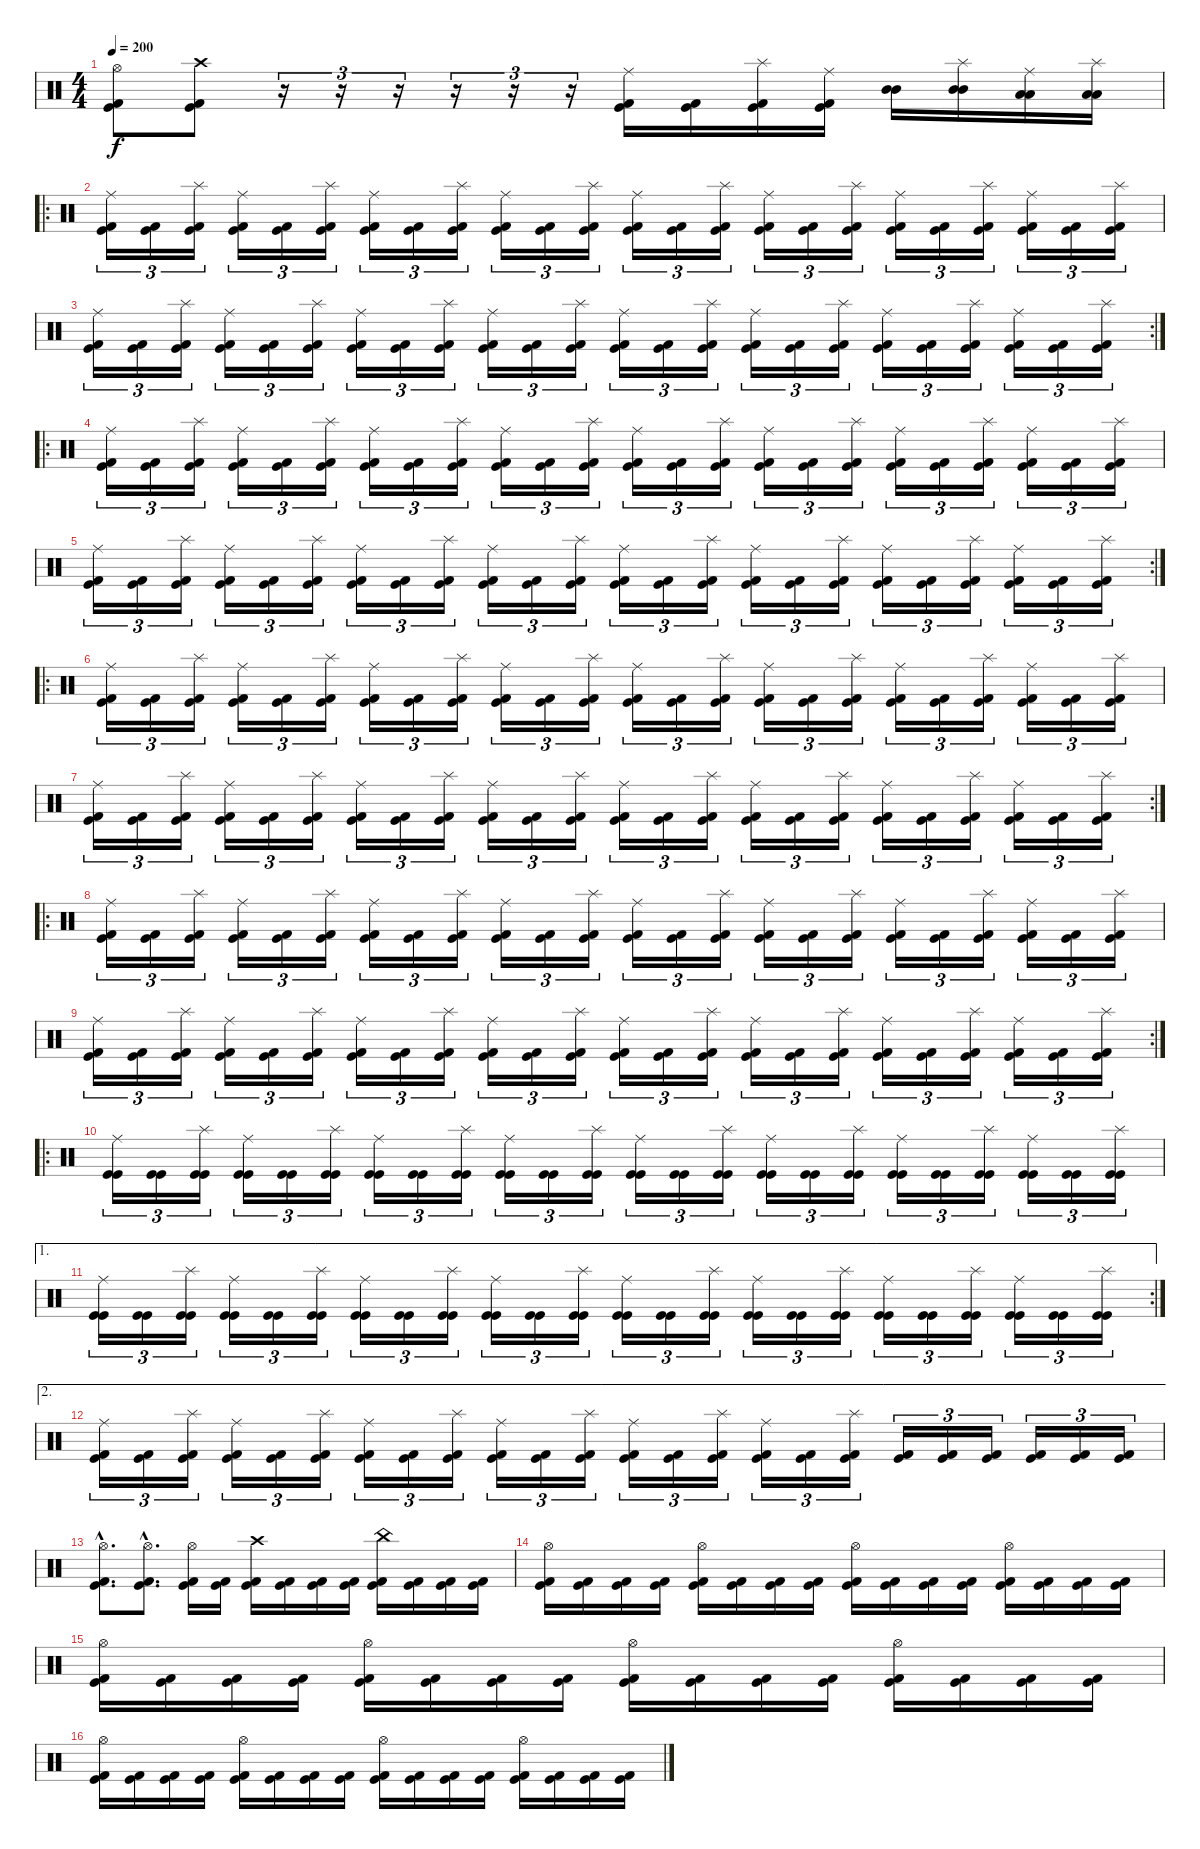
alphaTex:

\track "" {instrument percussion}
\staff {score}
\articulation defaults
\ts (4 4)
\tempo 200
\clef neutral
\ks c
("Hi-Hat (open)" "Kick (hit)" "Kick (hit) 2").8{dy f} ("Crash high (hit)" "Kick (hit)" "Kick (hit) 2").8 r.16{tu (3 2)} r.16{tu (3 2)} r.16{tu (3 2)} r.16{tu (3 2)} r.16{tu (3 2)} r.16{tu (3 2)} ("Ride (middle)" "Kick (hit)" "Kick (hit) 2").16 ("Kick (hit)" "Kick (hit) 2").16 ("Splash (hit)" "Kick (hit)" "Kick (hit) 2").16 ("Ride (middle)" "Kick (hit)" "Kick (hit) 2").16 ("Mid Tom (hit)" "Mid Tom (hit)").16 ("Splash (hit)" "Mid Tom (hit)" "Mid Tom (hit)").16 ("Ride (middle)" "Low Tom (hit)" "Low Tom (hit)").16 ("Splash (hit)" "Low Tom (hit)" "Low Tom (hit)").16 |
\ro
("Ride (middle)" "Kick (hit)" "Kick (hit) 2").16{tu (3 2)} ("Kick (hit)" "Kick (hit) 2").16{tu (3 2)} ("Splash (hit)" "Kick (hit)" "Kick (hit) 2").16{tu (3 2)} ("Ride (middle)" "Kick (hit)" "Kick (hit) 2").16{tu (3 2)} ("Kick (hit)" "Kick (hit) 2").16{tu (3 2)} ("Splash (hit)" "Kick (hit)" "Kick (hit) 2").16{tu (3 2)} ("Ride (middle)" "Kick (hit)" "Kick (hit) 2").16{tu (3 2)} ("Kick (hit)" "Kick (hit) 2").16{tu (3 2)} ("Splash (hit)" "Kick (hit)" "Kick (hit) 2").16{tu (3 2)} ("Ride (middle)" "Kick (hit)" "Kick (hit) 2").16{tu (3 2)} ("Kick (hit)" "Kick (hit) 2").16{tu (3 2)} ("Splash (hit)" "Kick (hit)" "Kick (hit) 2").16{tu (3 2)} ("Ride (middle)" "Kick (hit)" "Kick (hit) 2").16{tu (3 2)} ("Kick (hit)" "Kick (hit) 2").16{tu (3 2)} ("Splash (hit)" "Kick (hit)" "Kick (hit) 2").16{tu (3 2)} ("Ride (middle)" "Kick (hit)" "Kick (hit) 2").16{tu (3 2)} ("Kick (hit)" "Kick (hit) 2").16{tu (3 2)} ("Splash (hit)" "Kick (hit)" "Kick (hit) 2").16{tu (3 2)} ("Ride (middle)" "Kick (hit)" "Kick (hit) 2").16{tu (3 2)} ("Kick (hit)" "Kick (hit) 2").16{tu (3 2)} ("Splash (hit)" "Kick (hit)" "Kick (hit) 2").16{tu (3 2)} ("Ride (middle)" "Kick (hit)" "Kick (hit) 2").16{tu (3 2)} ("Kick (hit)" "Kick (hit) 2").16{tu (3 2)} ("Splash (hit)" "Kick (hit)" "Kick (hit) 2").16{tu (3 2)} |
\rc 2
("Ride (middle)" "Kick (hit)" "Kick (hit) 2").16{tu (3 2)} ("Kick (hit)" "Kick (hit) 2").16{tu (3 2)} ("Splash (hit)" "Kick (hit)" "Kick (hit) 2").16{tu (3 2)} ("Ride (middle)" "Kick (hit)" "Kick (hit) 2").16{tu (3 2)} ("Kick (hit)" "Kick (hit) 2").16{tu (3 2)} ("Splash (hit)" "Kick (hit)" "Kick (hit) 2").16{tu (3 2)} ("Ride (middle)" "Kick (hit)" "Kick (hit) 2").16{tu (3 2)} ("Kick (hit)" "Kick (hit) 2").16{tu (3 2)} ("Splash (hit)" "Kick (hit)" "Kick (hit) 2").16{tu (3 2)} ("Ride (middle)" "Kick (hit)" "Kick (hit) 2").16{tu (3 2)} ("Kick (hit)" "Kick (hit) 2").16{tu (3 2)} ("Splash (hit)" "Kick (hit)" "Kick (hit) 2").16{tu (3 2)} ("Ride (middle)" "Kick (hit)" "Kick (hit) 2").16{tu (3 2)} ("Kick (hit)" "Kick (hit) 2").16{tu (3 2)} ("Splash (hit)" "Kick (hit)" "Kick (hit) 2").16{tu (3 2)} ("Ride (middle)" "Kick (hit)" "Kick (hit) 2").16{tu (3 2)} ("Kick (hit)" "Kick (hit) 2").16{tu (3 2)} ("Splash (hit)" "Kick (hit)" "Kick (hit) 2").16{tu (3 2)} ("Ride (middle)" "Kick (hit)" "Kick (hit) 2").16{tu (3 2)} ("Kick (hit)" "Kick (hit) 2").16{tu (3 2)} ("Splash (hit)" "Kick (hit)" "Kick (hit) 2").16{tu (3 2)} ("Ride (middle)" "Kick (hit)" "Kick (hit) 2").16{tu (3 2)} ("Kick (hit)" "Kick (hit) 2").16{tu (3 2)} ("Splash (hit)" "Kick (hit)" "Kick (hit) 2").16{tu (3 2)} |
\ro
("Ride (middle)" "Kick (hit)" "Kick (hit) 2").16{tu (3 2)} ("Kick (hit)" "Kick (hit) 2").16{tu (3 2)} ("Splash (hit)" "Kick (hit)" "Kick (hit) 2").16{tu (3 2)} ("Ride (middle)" "Kick (hit)" "Kick (hit) 2").16{tu (3 2)} ("Kick (hit)" "Kick (hit) 2").16{tu (3 2)} ("Splash (hit)" "Kick (hit)" "Kick (hit) 2").16{tu (3 2)} ("Ride (middle)" "Kick (hit)" "Kick (hit) 2").16{tu (3 2)} ("Kick (hit)" "Kick (hit) 2").16{tu (3 2)} ("Splash (hit)" "Kick (hit)" "Kick (hit) 2").16{tu (3 2)} ("Ride (middle)" "Kick (hit)" "Kick (hit) 2").16{tu (3 2)} ("Kick (hit)" "Kick (hit) 2").16{tu (3 2)} ("Splash (hit)" "Kick (hit)" "Kick (hit) 2").16{tu (3 2)} ("Ride (middle)" "Kick (hit)" "Kick (hit) 2").16{tu (3 2)} ("Kick (hit)" "Kick (hit) 2").16{tu (3 2)} ("Splash (hit)" "Kick (hit)" "Kick (hit) 2").16{tu (3 2)} ("Ride (middle)" "Kick (hit)" "Kick (hit) 2").16{tu (3 2)} ("Kick (hit)" "Kick (hit) 2").16{tu (3 2)} ("Splash (hit)" "Kick (hit)" "Kick (hit) 2").16{tu (3 2)} ("Ride (middle)" "Kick (hit)" "Kick (hit) 2").16{tu (3 2)} ("Kick (hit)" "Kick (hit) 2").16{tu (3 2)} ("Splash (hit)" "Kick (hit)" "Kick (hit) 2").16{tu (3 2)} ("Ride (middle)" "Kick (hit)" "Kick (hit) 2").16{tu (3 2)} ("Kick (hit)" "Kick (hit) 2").16{tu (3 2)} ("Splash (hit)" "Kick (hit)" "Kick (hit) 2").16{tu (3 2)} |
\rc 2
("Ride (middle)" "Kick (hit)" "Kick (hit) 2").16{tu (3 2)} ("Kick (hit)" "Kick (hit) 2").16{tu (3 2)} ("Splash (hit)" "Kick (hit)" "Kick (hit) 2").16{tu (3 2)} ("Ride (middle)" "Kick (hit)" "Kick (hit) 2").16{tu (3 2)} ("Kick (hit)" "Kick (hit) 2").16{tu (3 2)} ("Splash (hit)" "Kick (hit)" "Kick (hit) 2").16{tu (3 2)} ("Ride (middle)" "Kick (hit)" "Kick (hit) 2").16{tu (3 2)} ("Kick (hit)" "Kick (hit) 2").16{tu (3 2)} ("Splash (hit)" "Kick (hit)" "Kick (hit) 2").16{tu (3 2)} ("Ride (middle)" "Kick (hit)" "Kick (hit) 2").16{tu (3 2)} ("Kick (hit)" "Kick (hit) 2").16{tu (3 2)} ("Splash (hit)" "Kick (hit)" "Kick (hit) 2").16{tu (3 2)} ("Ride (middle)" "Kick (hit)" "Kick (hit) 2").16{tu (3 2)} ("Kick (hit)" "Kick (hit) 2").16{tu (3 2)} ("Splash (hit)" "Kick (hit)" "Kick (hit) 2").16{tu (3 2)} ("Ride (middle)" "Kick (hit)" "Kick (hit) 2").16{tu (3 2)} ("Kick (hit)" "Kick (hit) 2").16{tu (3 2)} ("Splash (hit)" "Kick (hit)" "Kick (hit) 2").16{tu (3 2)} ("Ride (middle)" "Kick (hit)" "Kick (hit) 2").16{tu (3 2)} ("Kick (hit)" "Kick (hit) 2").16{tu (3 2)} ("Splash (hit)" "Kick (hit)" "Kick (hit) 2").16{tu (3 2)} ("Ride (middle)" "Kick (hit)" "Kick (hit) 2").16{tu (3 2)} ("Kick (hit)" "Kick (hit) 2").16{tu (3 2)} ("Splash (hit)" "Kick (hit)" "Kick (hit) 2").16{tu (3 2)} |
\ro
("Ride (middle)" "Kick (hit)" "Kick (hit) 2").16{tu (3 2)} ("Kick (hit)" "Kick (hit) 2").16{tu (3 2)} ("Splash (hit)" "Kick (hit)" "Kick (hit) 2").16{tu (3 2)} ("Ride (middle)" "Kick (hit)" "Kick (hit) 2").16{tu (3 2)} ("Kick (hit)" "Kick (hit) 2").16{tu (3 2)} ("Splash (hit)" "Kick (hit)" "Kick (hit) 2").16{tu (3 2)} ("Ride (middle)" "Kick (hit)" "Kick (hit) 2").16{tu (3 2)} ("Kick (hit)" "Kick (hit) 2").16{tu (3 2)} ("Splash (hit)" "Kick (hit)" "Kick (hit) 2").16{tu (3 2)} ("Ride (middle)" "Kick (hit)" "Kick (hit) 2").16{tu (3 2)} ("Kick (hit)" "Kick (hit) 2").16{tu (3 2)} ("Splash (hit)" "Kick (hit)" "Kick (hit) 2").16{tu (3 2)} ("Ride (middle)" "Kick (hit)" "Kick (hit) 2").16{tu (3 2)} ("Kick (hit)" "Kick (hit) 2").16{tu (3 2)} ("Splash (hit)" "Kick (hit)" "Kick (hit) 2").16{tu (3 2)} ("Ride (middle)" "Kick (hit)" "Kick (hit) 2").16{tu (3 2)} ("Kick (hit)" "Kick (hit) 2").16{tu (3 2)} ("Splash (hit)" "Kick (hit)" "Kick (hit) 2").16{tu (3 2)} ("Ride (middle)" "Kick (hit)" "Kick (hit) 2").16{tu (3 2)} ("Kick (hit)" "Kick (hit) 2").16{tu (3 2)} ("Splash (hit)" "Kick (hit)" "Kick (hit) 2").16{tu (3 2)} ("Ride (middle)" "Kick (hit)" "Kick (hit) 2").16{tu (3 2)} ("Kick (hit)" "Kick (hit) 2").16{tu (3 2)} ("Splash (hit)" "Kick (hit)" "Kick (hit) 2").16{tu (3 2)} |
\rc 2
("Ride (middle)" "Kick (hit)" "Kick (hit) 2").16{tu (3 2)} ("Kick (hit)" "Kick (hit) 2").16{tu (3 2)} ("Splash (hit)" "Kick (hit)" "Kick (hit) 2").16{tu (3 2)} ("Ride (middle)" "Kick (hit)" "Kick (hit) 2").16{tu (3 2)} ("Kick (hit)" "Kick (hit) 2").16{tu (3 2)} ("Splash (hit)" "Kick (hit)" "Kick (hit) 2").16{tu (3 2)} ("Ride (middle)" "Kick (hit)" "Kick (hit) 2").16{tu (3 2)} ("Kick (hit)" "Kick (hit) 2").16{tu (3 2)} ("Splash (hit)" "Kick (hit)" "Kick (hit) 2").16{tu (3 2)} ("Ride (middle)" "Kick (hit)" "Kick (hit) 2").16{tu (3 2)} ("Kick (hit)" "Kick (hit) 2").16{tu (3 2)} ("Splash (hit)" "Kick (hit)" "Kick (hit) 2").16{tu (3 2)} ("Ride (middle)" "Kick (hit)" "Kick (hit) 2").16{tu (3 2)} ("Kick (hit)" "Kick (hit) 2").16{tu (3 2)} ("Splash (hit)" "Kick (hit)" "Kick (hit) 2").16{tu (3 2)} ("Ride (middle)" "Kick (hit)" "Kick (hit) 2").16{tu (3 2)} ("Kick (hit)" "Kick (hit) 2").16{tu (3 2)} ("Splash (hit)" "Kick (hit)" "Kick (hit) 2").16{tu (3 2)} ("Ride (middle)" "Kick (hit)" "Kick (hit) 2").16{tu (3 2)} ("Kick (hit)" "Kick (hit) 2").16{tu (3 2)} ("Splash (hit)" "Kick (hit)" "Kick (hit) 2").16{tu (3 2)} ("Ride (middle)" "Kick (hit)" "Kick (hit) 2").16{tu (3 2)} ("Kick (hit)" "Kick (hit) 2").16{tu (3 2)} ("Splash (hit)" "Kick (hit)" "Kick (hit) 2").16{tu (3 2)} |
\ro
("Ride (middle)" "Kick (hit)" "Kick (hit) 2").16{tu (3 2)} ("Kick (hit)" "Kick (hit) 2").16{tu (3 2)} ("Splash (hit)" "Kick (hit)" "Kick (hit) 2").16{tu (3 2)} ("Ride (middle)" "Kick (hit)" "Kick (hit) 2").16{tu (3 2)} ("Kick (hit)" "Kick (hit) 2").16{tu (3 2)} ("Splash (hit)" "Kick (hit)" "Kick (hit) 2").16{tu (3 2)} ("Ride (middle)" "Kick (hit)" "Kick (hit) 2").16{tu (3 2)} ("Kick (hit)" "Kick (hit) 2").16{tu (3 2)} ("Splash (hit)" "Kick (hit)" "Kick (hit) 2").16{tu (3 2)} ("Ride (middle)" "Kick (hit)" "Kick (hit) 2").16{tu (3 2)} ("Kick (hit)" "Kick (hit) 2").16{tu (3 2)} ("Splash (hit)" "Kick (hit)" "Kick (hit) 2").16{tu (3 2)} ("Ride (middle)" "Kick (hit)" "Kick (hit) 2").16{tu (3 2)} ("Kick (hit)" "Kick (hit) 2").16{tu (3 2)} ("Splash (hit)" "Kick (hit)" "Kick (hit) 2").16{tu (3 2)} ("Ride (middle)" "Kick (hit)" "Kick (hit) 2").16{tu (3 2)} ("Kick (hit)" "Kick (hit) 2").16{tu (3 2)} ("Splash (hit)" "Kick (hit)" "Kick (hit) 2").16{tu (3 2)} ("Ride (middle)" "Kick (hit)" "Kick (hit) 2").16{tu (3 2)} ("Kick (hit)" "Kick (hit) 2").16{tu (3 2)} ("Splash (hit)" "Kick (hit)" "Kick (hit) 2").16{tu (3 2)} ("Ride (middle)" "Kick (hit)" "Kick (hit) 2").16{tu (3 2)} ("Kick (hit)" "Kick (hit) 2").16{tu (3 2)} ("Splash (hit)" "Kick (hit)" "Kick (hit) 2").16{tu (3 2)} |
\rc 2
("Ride (middle)" "Kick (hit)" "Kick (hit) 2").16{tu (3 2)} ("Kick (hit)" "Kick (hit) 2").16{tu (3 2)} ("Splash (hit)" "Kick (hit)" "Kick (hit) 2").16{tu (3 2)} ("Ride (middle)" "Kick (hit)" "Kick (hit) 2").16{tu (3 2)} ("Kick (hit)" "Kick (hit) 2").16{tu (3 2)} ("Splash (hit)" "Kick (hit)" "Kick (hit) 2").16{tu (3 2)} ("Ride (middle)" "Kick (hit)" "Kick (hit) 2").16{tu (3 2)} ("Kick (hit)" "Kick (hit) 2").16{tu (3 2)} ("Splash (hit)" "Kick (hit)" "Kick (hit) 2").16{tu (3 2)} ("Ride (middle)" "Kick (hit)" "Kick (hit) 2").16{tu (3 2)} ("Kick (hit)" "Kick (hit) 2").16{tu (3 2)} ("Splash (hit)" "Kick (hit)" "Kick (hit) 2").16{tu (3 2)} ("Ride (middle)" "Kick (hit)" "Kick (hit) 2").16{tu (3 2)} ("Kick (hit)" "Kick (hit) 2").16{tu (3 2)} ("Splash (hit)" "Kick (hit)" "Kick (hit) 2").16{tu (3 2)} ("Ride (middle)" "Kick (hit)" "Kick (hit) 2").16{tu (3 2)} ("Kick (hit)" "Kick (hit) 2").16{tu (3 2)} ("Splash (hit)" "Kick (hit)" "Kick (hit) 2").16{tu (3 2)} ("Ride (middle)" "Kick (hit)" "Kick (hit) 2").16{tu (3 2)} ("Kick (hit)" "Kick (hit) 2").16{tu (3 2)} ("Splash (hit)" "Kick (hit)" "Kick (hit) 2").16{tu (3 2)} ("Ride (middle)" "Kick (hit)" "Kick (hit) 2").16{tu (3 2)} ("Kick (hit)" "Kick (hit) 2").16{tu (3 2)} ("Splash (hit)" "Kick (hit)" "Kick (hit) 2").16{tu (3 2)} |
\ro
("Ride (middle)" "Kick (hit)" "Kick (hit)").16{tu (3 2)} ("Kick (hit)" "Kick (hit)").16{tu (3 2)} ("Splash (hit)" "Kick (hit)" "Kick (hit)").16{tu (3 2)} ("Ride (middle)" "Kick (hit)" "Kick (hit)").16{tu (3 2)} ("Kick (hit)" "Kick (hit)").16{tu (3 2)} ("Splash (hit)" "Kick (hit)" "Kick (hit)").16{tu (3 2)} ("Ride (middle)" "Kick (hit)" "Kick (hit)").16{tu (3 2)} ("Kick (hit)" "Kick (hit)").16{tu (3 2)} ("Splash (hit)" "Kick (hit)" "Kick (hit)").16{tu (3 2)} ("Ride (middle)" "Kick (hit)" "Kick (hit)").16{tu (3 2)} ("Kick (hit)" "Kick (hit)").16{tu (3 2)} ("Splash (hit)" "Kick (hit)" "Kick (hit)").16{tu (3 2)} ("Ride (middle)" "Kick (hit)" "Kick (hit)").16{tu (3 2)} ("Kick (hit)" "Kick (hit)").16{tu (3 2)} ("Splash (hit)" "Kick (hit)" "Kick (hit)").16{tu (3 2)} ("Ride (middle)" "Kick (hit)" "Kick (hit)").16{tu (3 2)} ("Kick (hit)" "Kick (hit)").16{tu (3 2)} ("Splash (hit)" "Kick (hit)" "Kick (hit)").16{tu (3 2)} ("Ride (middle)" "Kick (hit)" "Kick (hit)").16{tu (3 2)} ("Kick (hit)" "Kick (hit)").16{tu (3 2)} ("Splash (hit)" "Kick (hit)" "Kick (hit)").16{tu (3 2)} ("Ride (middle)" "Kick (hit)" "Kick (hit)").16{tu (3 2)} ("Kick (hit)" "Kick (hit)").16{tu (3 2)} ("Splash (hit)" "Kick (hit)" "Kick (hit)").16{tu (3 2)} |
\ae 1
\rc 2
("Ride (middle)" "Kick (hit)" "Kick (hit)").16{tu (3 2)} ("Kick (hit)" "Kick (hit)").16{tu (3 2)} ("Splash (hit)" "Kick (hit)" "Kick (hit)").16{tu (3 2)} ("Ride (middle)" "Kick (hit)" "Kick (hit)").16{tu (3 2)} ("Kick (hit)" "Kick (hit)").16{tu (3 2)} ("Splash (hit)" "Kick (hit)" "Kick (hit)").16{tu (3 2)} ("Ride (middle)" "Kick (hit)" "Kick (hit)").16{tu (3 2)} ("Kick (hit)" "Kick (hit)").16{tu (3 2)} ("Splash (hit)" "Kick (hit)" "Kick (hit)").16{tu (3 2)} ("Ride (middle)" "Kick (hit)" "Kick (hit)").16{tu (3 2)} ("Kick (hit)" "Kick (hit)").16{tu (3 2)} ("Splash (hit)" "Kick (hit)" "Kick (hit)").16{tu (3 2)} ("Ride (middle)" "Kick (hit)" "Kick (hit)").16{tu (3 2)} ("Kick (hit)" "Kick (hit)").16{tu (3 2)} ("Splash (hit)" "Kick (hit)" "Kick (hit)").16{tu (3 2)} ("Ride (middle)" "Kick (hit)" "Kick (hit)").16{tu (3 2)} ("Kick (hit)" "Kick (hit)").16{tu (3 2)} ("Splash (hit)" "Kick (hit)" "Kick (hit)").16{tu (3 2)} ("Ride (middle)" "Kick (hit)" "Kick (hit)").16{tu (3 2)} ("Kick (hit)" "Kick (hit)").16{tu (3 2)} ("Splash (hit)" "Kick (hit)" "Kick (hit)").16{tu (3 2)} ("Ride (middle)" "Kick (hit)" "Kick (hit)").16{tu (3 2)} ("Kick (hit)" "Kick (hit)").16{tu (3 2)} ("Splash (hit)" "Kick (hit)" "Kick (hit)").16{tu (3 2)} |
\ae 2
("Ride (middle)" "Kick (hit)" "Kick (hit) 2").16{tu (3 2)} ("Kick (hit)" "Kick (hit) 2").16{tu (3 2)} ("Splash (hit)" "Kick (hit)" "Kick (hit) 2").16{tu (3 2)} ("Ride (middle)" "Kick (hit)" "Kick (hit) 2").16{tu (3 2)} ("Kick (hit)" "Kick (hit) 2").16{tu (3 2)} ("Splash (hit)" "Kick (hit)" "Kick (hit) 2").16{tu (3 2)} ("Ride (middle)" "Kick (hit)" "Kick (hit) 2").16{tu (3 2)} ("Kick (hit)" "Kick (hit) 2").16{tu (3 2)} ("Splash (hit)" "Kick (hit)" "Kick (hit) 2").16{tu (3 2)} ("Ride (middle)" "Kick (hit)" "Kick (hit) 2").16{tu (3 2)} ("Kick (hit)" "Kick (hit) 2").16{tu (3 2)} ("Splash (hit)" "Kick (hit)" "Kick (hit) 2").16{tu (3 2)} ("Ride (middle)" "Kick (hit)" "Kick (hit) 2").16{tu (3 2)} ("Kick (hit)" "Kick (hit) 2").16{tu (3 2)} ("Splash (hit)" "Kick (hit)" "Kick (hit) 2").16{tu (3 2)} ("Ride (middle)" "Kick (hit)" "Kick (hit) 2").16{tu (3 2)} ("Kick (hit)" "Kick (hit) 2").16{tu (3 2)} ("Splash (hit)" "Kick (hit)" "Kick (hit) 2").16{tu (3 2)} ("Kick (hit)" "Kick (hit) 2").16{tu (3 2)} ("Kick (hit)" "Kick (hit) 2").16{tu (3 2)} ("Kick (hit)" "Kick (hit) 2").16{tu (3 2)} ("Kick (hit)" "Kick (hit) 2").16{tu (3 2)} ("Kick (hit)" "Kick (hit) 2").16{tu (3 2)} ("Kick (hit)" "Kick (hit) 2").16{tu (3 2)} |
("Hi-Hat (open)"{hac} "Kick (hit)"{hac} "Kick (hit) 2"{hac}).8{d} ("Hi-Hat (open)"{hac} "Kick (hit)"{hac} "Kick (hit) 2"{hac}).8{d} ("Hi-Hat (open)" "Kick (hit)" "Kick (hit) 2").16 ("Kick (hit)" "Kick (hit) 2").16 ("Crash high (hit)" "Kick (hit)" "Kick (hit) 2").16 ("Kick (hit)" "Kick (hit) 2").16 ("Kick (hit)" "Kick (hit) 2").16 ("Kick (hit)" "Kick (hit) 2").16 ("China (hit)" "Kick (hit)" "Kick (hit) 2").16 ("Kick (hit)" "Kick (hit) 2").16 ("Kick (hit)" "Kick (hit) 2").16 ("Kick (hit)" "Kick (hit) 2").16 |
("Hi-Hat (open)" "Kick (hit)" "Kick (hit) 2").16 ("Kick (hit)" "Kick (hit) 2").16 ("Kick (hit)" "Kick (hit) 2").16 ("Kick (hit)" "Kick (hit) 2").16 ("Hi-Hat (open)" "Kick (hit)" "Kick (hit) 2").16 ("Kick (hit)" "Kick (hit) 2").16 ("Kick (hit)" "Kick (hit) 2").16 ("Kick (hit)" "Kick (hit) 2").16 ("Hi-Hat (open)" "Kick (hit)" "Kick (hit) 2").16 ("Kick (hit)" "Kick (hit) 2").16 ("Kick (hit)" "Kick (hit) 2").16 ("Kick (hit)" "Kick (hit) 2").16 ("Hi-Hat (open)" "Kick (hit)" "Kick (hit) 2").16 ("Kick (hit)" "Kick (hit) 2").16 ("Kick (hit)" "Kick (hit) 2").16 ("Kick (hit)" "Kick (hit) 2").16 |
("Hi-Hat (open)" "Kick (hit)" "Kick (hit) 2").16 ("Kick (hit)" "Kick (hit) 2").16 ("Kick (hit)" "Kick (hit) 2").16 ("Kick (hit)" "Kick (hit) 2").16 ("Hi-Hat (open)" "Kick (hit)" "Kick (hit) 2").16 ("Kick (hit)" "Kick (hit) 2").16 ("Kick (hit)" "Kick (hit) 2").16 ("Kick (hit)" "Kick (hit) 2").16 ("Hi-Hat (open)" "Kick (hit)" "Kick (hit) 2").16 ("Kick (hit)" "Kick (hit) 2").16 ("Kick (hit)" "Kick (hit) 2").16 ("Kick (hit)" "Kick (hit) 2").16 ("Hi-Hat (open)" "Kick (hit)" "Kick (hit) 2").16 ("Kick (hit)" "Kick (hit) 2").16 ("Kick (hit)" "Kick (hit) 2").16 ("Kick (hit)" "Kick (hit) 2").16 |
("Hi-Hat (open)" "Kick (hit)" "Kick (hit) 2").16 ("Kick (hit)" "Kick (hit) 2").16 ("Kick (hit)" "Kick (hit) 2").16 ("Kick (hit)" "Kick (hit) 2").16 ("Hi-Hat (open)" "Kick (hit)" "Kick (hit) 2").16 ("Kick (hit)" "Kick (hit) 2").16 ("Kick (hit)" "Kick (hit) 2").16 ("Kick (hit)" "Kick (hit) 2").16 ("Hi-Hat (open)" "Kick (hit)" "Kick (hit) 2").16 ("Kick (hit)" "Kick (hit) 2").16 ("Kick (hit)" "Kick (hit) 2").16 ("Kick (hit)" "Kick (hit) 2").16 ("Hi-Hat (open)" "Kick (hit)" "Kick (hit) 2").16 ("Kick (hit)" "Kick (hit) 2").16 ("Kick (hit)" "Kick (hit) 2").16 ("Kick (hit)" "Kick (hit) 2").16
